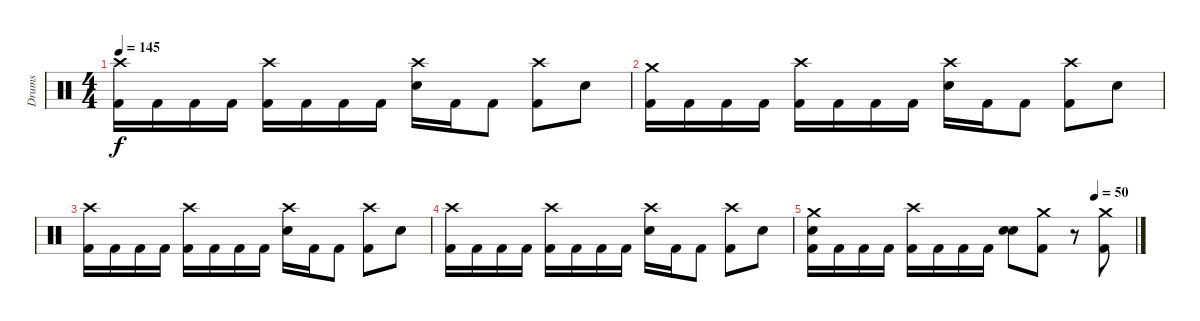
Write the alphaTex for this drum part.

\track ("Drums" "Drums") {instrument percussion}
\staff {score}
\articulation defaults
\ts (4 4)
\tempo 145
\clef neutral
\ks c
("Crash high (hit)" "Kick (hit) 2").16{dy f} "Kick (hit) 2".16 "Kick (hit) 2".16 "Kick (hit) 2".16 ("Crash high (hit)" "Kick (hit) 2").16 "Kick (hit) 2".16 "Kick (hit) 2".16 "Kick (hit) 2".16 ("Crash high (hit)" "Electric Snare (hit)").16 "Kick (hit) 2".16 "Kick (hit) 2".8 ("Crash high (hit)" "Kick (hit) 2").8 "Electric Snare (hit)".8 |
("Crash medium (hit)" "Kick (hit) 2").16 "Kick (hit) 2".16 "Kick (hit) 2".16 "Kick (hit) 2".16 ("Crash high (hit)" "Kick (hit) 2").16 "Kick (hit) 2".16 "Kick (hit) 2".16 "Kick (hit) 2".16 ("Crash high (hit)" "Electric Snare (hit)").16 "Kick (hit) 2".16 "Kick (hit) 2".8 ("Crash high (hit)" "Kick (hit) 2").8 "Electric Snare (hit)".8 |
("Crash high (hit)" "Kick (hit) 2").16 "Kick (hit) 2".16 "Kick (hit) 2".16 "Kick (hit) 2".16 ("Crash high (hit)" "Kick (hit) 2").16 "Kick (hit) 2".16 "Kick (hit) 2".16 "Kick (hit) 2".16 ("Crash high (hit)" "Electric Snare (hit)").16 "Kick (hit) 2".16 "Kick (hit) 2".8 ("Crash high (hit)" "Kick (hit) 2").8 "Electric Snare (hit)".8 |
("Crash high (hit)" "Kick (hit) 2").16 "Kick (hit) 2".16 "Kick (hit) 2".16 "Kick (hit) 2".16 ("Crash high (hit)" "Kick (hit) 2").16 "Kick (hit) 2".16 "Kick (hit) 2".16 "Kick (hit) 2".16 ("Crash high (hit)" "Electric Snare (hit)").16 "Kick (hit) 2".16 "Kick (hit) 2".8 ("Crash high (hit)" "Kick (hit) 2").8 "Electric Snare (hit)".8 |
\tempo (50 0.875)
("Crash medium (hit)" "Electric Snare (hit)" "Kick (hit) 2").16 "Kick (hit) 2".16 "Kick (hit) 2".16 "Kick (hit) 2".16 ("Crash high (hit)" "Kick (hit) 2").16 "Kick (hit) 2".16 "Kick (hit) 2".16 "Kick (hit) 2".16 ("Electric Snare (hit)" "Electric Snare (hit)").8{bu 60} ("Crash medium (hit)" "Kick (hit) 2").8 r.8 ("Crash medium (hit)" "Kick (hit) 2").8
